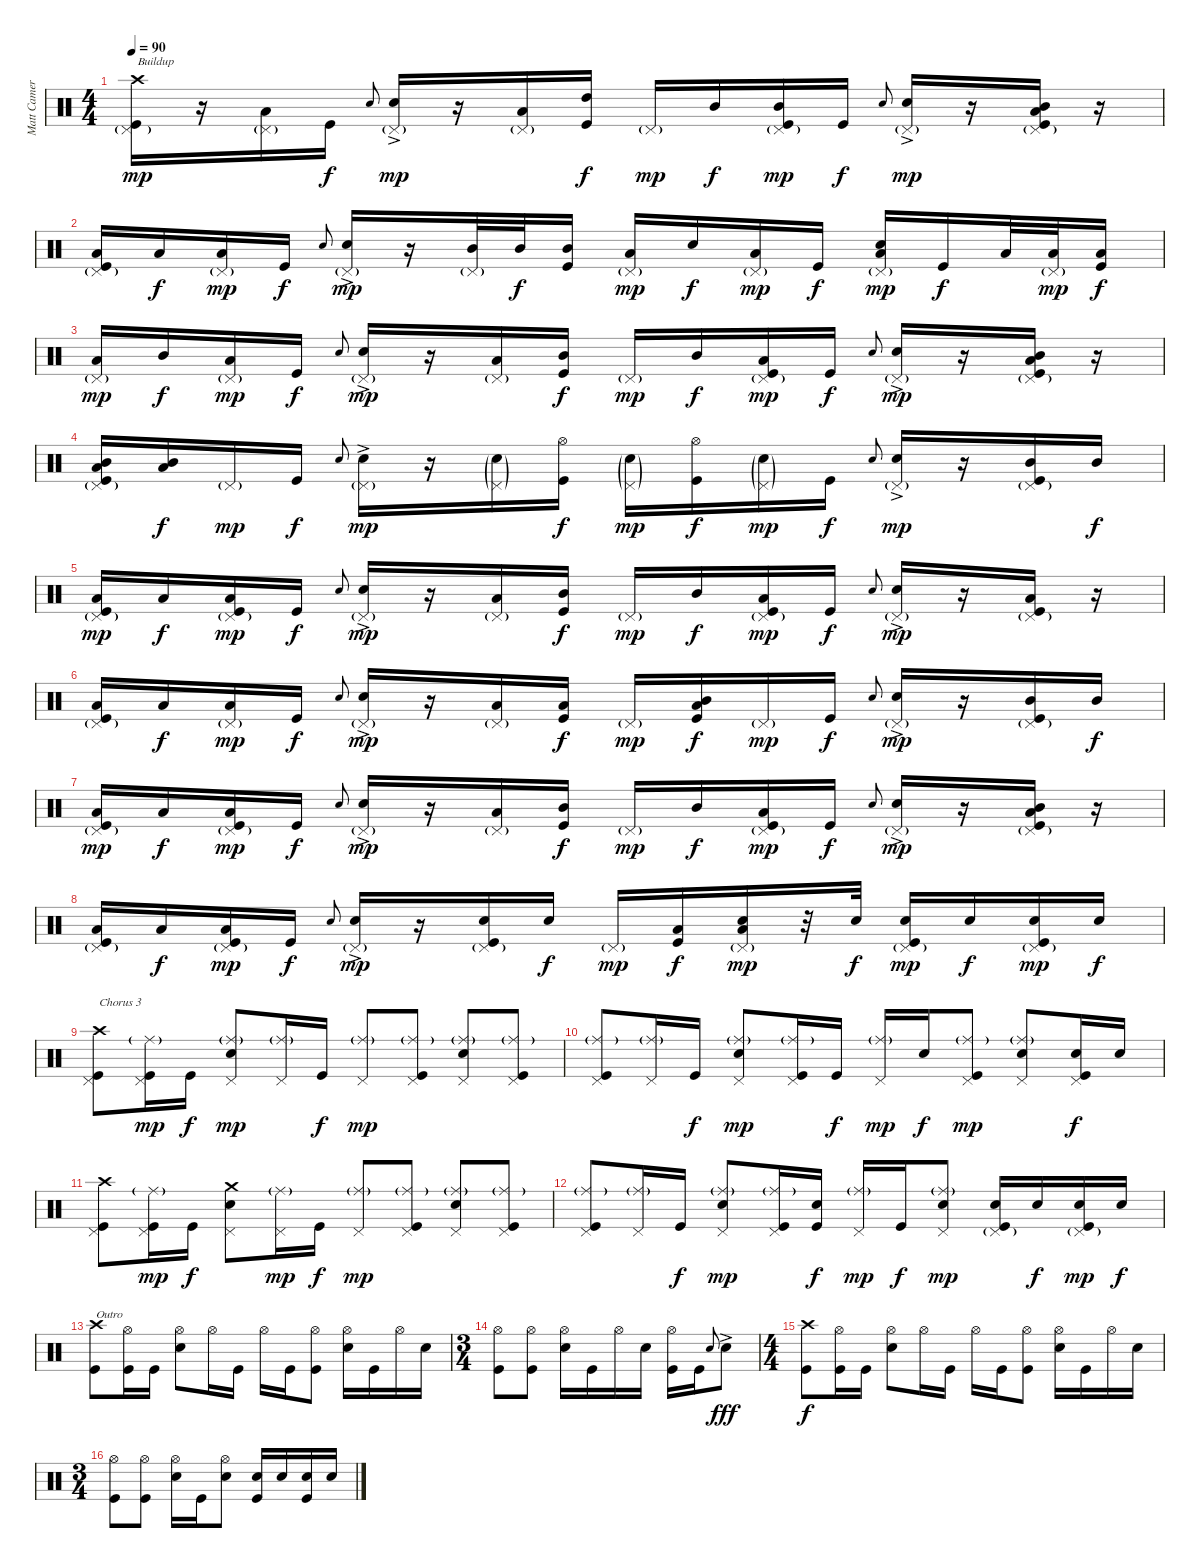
\track ("Matt Cameron" "Matt Camer") {instrument percussion}
\staff {score}
\articulation defaults
\ts (4 4)
\tempo 90
\clef neutral
\ks c
("Crash high (hit)" "Pedal Hi-Hat (hit)"{g} "Kick (hit)").16{txt "Buildup" dy mp} r.16 ("Low Floor Tom (hit)" "Pedal Hi-Hat (hit)"{g}).16 "Kick (hit)".16{dy f} "Electric Snare (hit)".8{gr onbeat} ("Electric Snare (hit)"{ac} "Pedal Hi-Hat (hit)"{g}).16{dy mp} r.16 ("Low Floor Tom (hit)" "Pedal Hi-Hat (hit)"{g}).16 ("High Tom (hit)" "Kick (hit)").16{dy f} "Pedal Hi-Hat (hit)"{g}.16{dy mp} "Mid Tom (hit)".16{dy f} ("Mid Tom (hit)" "Pedal Hi-Hat (hit)"{g} "Kick (hit)").16{dy mp} "Kick (hit)".16{dy f} "Electric Snare (hit)".8{gr onbeat} ("Electric Snare (hit)"{ac} "Pedal Hi-Hat (hit)"{g}).16{dy mp} r.16 ("Mid Tom (hit)" "Low Floor Tom (hit)" "Pedal Hi-Hat (hit)"{g} "Kick (hit)").16 r.16 |
("Low Floor Tom (hit)" "Pedal Hi-Hat (hit)"{g} "Kick (hit)").16 "Low Floor Tom (hit)".16{dy f} ("Low Floor Tom (hit)" "Pedal Hi-Hat (hit)"{g}).16{dy mp} "Kick (hit)".16{dy f} "Electric Snare (hit)".8{gr onbeat} ("Electric Snare (hit)"{ac} "Pedal Hi-Hat (hit)"{g}).16{dy mp} r.16 ("Mid Tom (hit)" "Pedal Hi-Hat (hit)"{g}).32 "Mid Tom (hit)".32{dy f} ("Mid Tom (hit)" "Kick (hit)").16 ("Low Floor Tom (hit)" "Pedal Hi-Hat (hit)"{g}).16{dy mp} "Electric Snare (hit)".16{dy f} ("Low Floor Tom (hit)" "Pedal Hi-Hat (hit)"{g}).16{dy mp} "Kick (hit)".16{dy f} ("Electric Snare (hit)" "Low Floor Tom (hit)" "Pedal Hi-Hat (hit)"{g}).16{dy mp} "Kick (hit)".16{dy f} "Low Floor Tom (hit)".32 ("Low Floor Tom (hit)" "Pedal Hi-Hat (hit)"{g}).32{dy mp} ("Low Floor Tom (hit)" "Kick (hit)").16{dy f} |
("Low Floor Tom (hit)" "Pedal Hi-Hat (hit)"{g}).16{dy mp} "Mid Tom (hit)".16{dy f} ("Low Floor Tom (hit)" "Pedal Hi-Hat (hit)"{g}).16{dy mp} "Kick (hit)".16{dy f} "Electric Snare (hit)".8{gr onbeat} ("Electric Snare (hit)"{ac} "Pedal Hi-Hat (hit)"{g}).16{dy mp} r.16 ("Low Floor Tom (hit)" "Pedal Hi-Hat (hit)"{g}).16 ("Mid Tom (hit)" "Kick (hit)").16{dy f} "Pedal Hi-Hat (hit)"{g}.16{dy mp} "Mid Tom (hit)".16{dy f} ("Low Floor Tom (hit)" "Pedal Hi-Hat (hit)"{g} "Kick (hit)").16{dy mp} "Kick (hit)".16{dy f} "Electric Snare (hit)".8{gr onbeat} ("Electric Snare (hit)"{ac} "Pedal Hi-Hat (hit)"{g}).16{dy mp} r.16 ("Mid Tom (hit)" "Low Floor Tom (hit)" "Pedal Hi-Hat (hit)"{g} "Kick (hit)").16 r.16 |
("Mid Tom (hit)" "Low Floor Tom (hit)" "Pedal Hi-Hat (hit)"{g} "Kick (hit)").16 ("Mid Tom (hit)" "Low Floor Tom (hit)").16{dy f} "Pedal Hi-Hat (hit)"{g}.16{dy mp} "Kick (hit)".16{dy f} "Electric Snare (hit)".8{gr onbeat} ("Electric Snare (hit)"{ac} "Pedal Hi-Hat (hit)"{g}).16{dy mp} r.16 ("Electric Snare (hit)"{g} "Pedal Hi-Hat (hit)"{g}).16 ("Hi-Hat (open)" "Kick (hit)").16{dy f} ("Electric Snare (hit)"{g} "Pedal Hi-Hat (hit)"{g}).16{dy mp} ("Hi-Hat (open)" "Kick (hit)").16{dy f} ("Electric Snare (hit)"{g} "Pedal Hi-Hat (hit)"{g}).16{dy mp} "Kick (hit)".16{dy f} "Electric Snare (hit)".8{gr onbeat} ("Electric Snare (hit)"{ac} "Pedal Hi-Hat (hit)"{g}).16{dy mp} r.16 ("Mid Tom (hit)" "Pedal Hi-Hat (hit)"{g} "Kick (hit)").16 "Mid Tom (hit)".16{dy f} |
("Low Floor Tom (hit)" "Pedal Hi-Hat (hit)"{g} "Kick (hit)").16{dy mp} "Low Floor Tom (hit)".16{dy f} ("Low Floor Tom (hit)" "Pedal Hi-Hat (hit)"{g} "Kick (hit)").16{dy mp} "Kick (hit)".16{dy f} "Electric Snare (hit)".8{gr onbeat} ("Electric Snare (hit)"{ac} "Pedal Hi-Hat (hit)"{g}).16{dy mp} r.16 ("Low Floor Tom (hit)" "Pedal Hi-Hat (hit)"{g}).16 ("Mid Tom (hit)" "Kick (hit)").16{dy f} "Pedal Hi-Hat (hit)"{g}.16{dy mp} "Mid Tom (hit)".16{dy f} ("Low Floor Tom (hit)" "Pedal Hi-Hat (hit)"{g} "Kick (hit)").16{dy mp} "Kick (hit)".16{dy f} "Electric Snare (hit)".8{gr onbeat} ("Electric Snare (hit)"{ac} "Pedal Hi-Hat (hit)"{g}).16{dy mp} r.16 ("Low Floor Tom (hit)" "Pedal Hi-Hat (hit)"{g} "Kick (hit)").16 r.16 |
("Low Floor Tom (hit)" "Pedal Hi-Hat (hit)"{g} "Kick (hit)").16 "Low Floor Tom (hit)".16{dy f} ("Low Floor Tom (hit)" "Pedal Hi-Hat (hit)"{g}).16{dy mp} "Kick (hit)".16{dy f} "Electric Snare (hit)".8{gr onbeat} ("Electric Snare (hit)"{ac} "Pedal Hi-Hat (hit)"{g}).16{dy mp} r.16 ("Low Floor Tom (hit)" "Pedal Hi-Hat (hit)"{g}).16 ("Low Floor Tom (hit)" "Kick (hit)").16{dy f} "Pedal Hi-Hat (hit)"{g}.16{dy mp} ("Mid Tom (hit)" "Low Floor Tom (hit)" "Kick (hit)").16{dy f} "Pedal Hi-Hat (hit)"{g}.16{dy mp} "Kick (hit)".16{dy f} "Electric Snare (hit)".8{gr onbeat} ("Electric Snare (hit)"{ac} "Pedal Hi-Hat (hit)"{g}).16{dy mp} r.16 ("Mid Tom (hit)" "Pedal Hi-Hat (hit)"{g} "Kick (hit)").16 "Mid Tom (hit)".16{dy f} |
("Low Floor Tom (hit)" "Pedal Hi-Hat (hit)"{g} "Kick (hit)").16{dy mp} "Low Floor Tom (hit)".16{dy f} ("Low Floor Tom (hit)" "Pedal Hi-Hat (hit)"{g} "Kick (hit)").16{dy mp} "Kick (hit)".16{dy f} "Electric Snare (hit)".8{gr onbeat} ("Electric Snare (hit)"{ac} "Pedal Hi-Hat (hit)"{g}).16{dy mp} r.16 ("Low Floor Tom (hit)" "Pedal Hi-Hat (hit)"{g}).16 ("Mid Tom (hit)" "Kick (hit)").16{dy f} "Pedal Hi-Hat (hit)"{g}.16{dy mp} "Mid Tom (hit)".16{dy f} ("Low Floor Tom (hit)" "Pedal Hi-Hat (hit)"{g} "Kick (hit)").16{dy mp} "Kick (hit)".16{dy f} "Electric Snare (hit)".8{gr onbeat} ("Electric Snare (hit)"{ac} "Pedal Hi-Hat (hit)"{g}).16{dy mp} r.16 ("Mid Tom (hit)" "Low Floor Tom (hit)" "Pedal Hi-Hat (hit)"{g} "Kick (hit)").16 r.16 |
("Low Floor Tom (hit)" "Pedal Hi-Hat (hit)"{g} "Kick (hit)").16 "Low Floor Tom (hit)".16{dy f} ("Low Floor Tom (hit)" "Pedal Hi-Hat (hit)"{g} "Kick (hit)").16{dy mp} "Kick (hit)".16{dy f} "Electric Snare (hit)".8{gr onbeat} ("Electric Snare (hit)"{ac} "Pedal Hi-Hat (hit)"{g}).16{dy mp} r.16 ("Electric Snare (hit)" "Pedal Hi-Hat (hit)"{g} "Kick (hit)").16 "Electric Snare (hit)".16{dy f} "Pedal Hi-Hat (hit)"{g}.16{dy mp} ("Low Floor Tom (hit)" "Kick (hit)").16{dy f} ("Electric Snare (hit)" "Low Floor Tom (hit)" "Pedal Hi-Hat (hit)"{g}).16{dy mp} r.32 "Electric Snare (hit)".32{dy f} ("Electric Snare (hit)" "Pedal Hi-Hat (hit)"{g} "Kick (hit)").16{dy mp} "Electric Snare (hit)".16{dy f} ("Electric Snare (hit)" "Pedal Hi-Hat (hit)"{g} "Kick (hit)").16{dy mp} "Electric Snare (hit)".16{dy f} |
("Crash high (hit)" "Pedal Hi-Hat (hit)" "Kick (hit)").8{txt "Chorus 3"} ("Ride (middle)"{g} "Pedal Hi-Hat (hit)" "Kick (hit)").16{dy mp} "Kick (hit)".16{dy f} ("Ride (middle)"{g} "Electric Snare (hit)" "Pedal Hi-Hat (hit)").8{dy mp} ("Ride (middle)"{g} "Pedal Hi-Hat (hit)").16 "Kick (hit)".16{dy f} ("Ride (middle)"{g} "Pedal Hi-Hat (hit)").8{dy mp} ("Ride (middle)"{g} "Pedal Hi-Hat (hit)" "Kick (hit)").8 ("Ride (middle)"{g} "Electric Snare (hit)" "Pedal Hi-Hat (hit)").8 ("Ride (middle)"{g} "Pedal Hi-Hat (hit)" "Kick (hit)").8 |
("Ride (middle)"{g} "Pedal Hi-Hat (hit)" "Kick (hit)").8 ("Ride (middle)"{g} "Pedal Hi-Hat (hit)").16 "Kick (hit)".16{dy f} ("Ride (middle)"{g} "Electric Snare (hit)" "Pedal Hi-Hat (hit)").8{dy mp} ("Ride (middle)"{g} "Pedal Hi-Hat (hit)" "Kick (hit)").16 "Kick (hit)".16{dy f} ("Ride (middle)"{g} "Pedal Hi-Hat (hit)").16{dy mp} "Electric Snare (hit)".16{dy f} ("Ride (middle)"{g} "Pedal Hi-Hat (hit)" "Kick (hit)").8{dy mp} ("Ride (middle)"{g} "Electric Snare (hit)" "Pedal Hi-Hat (hit)").8 ("Electric Snare (hit)" "Pedal Hi-Hat (hit)" "Kick (hit)").16{dy f} "Electric Snare (hit)".16 |
("Crash high (hit)" "Pedal Hi-Hat (hit)" "Kick (hit)").8 ("Ride (middle)"{g} "Pedal Hi-Hat (hit)" "Kick (hit)").16{dy mp} "Kick (hit)".16{dy f} ("Crash medium (hit)" "Electric Snare (hit)" "Pedal Hi-Hat (hit)").8 ("Ride (middle)"{g} "Pedal Hi-Hat (hit)").16{dy mp} "Kick (hit)".16{dy f} ("Ride (middle)"{g} "Pedal Hi-Hat (hit)").8{dy mp} ("Ride (middle)"{g} "Pedal Hi-Hat (hit)" "Kick (hit)").8 ("Ride (middle)"{g} "Electric Snare (hit)" "Pedal Hi-Hat (hit)").8 ("Ride (middle)"{g} "Pedal Hi-Hat (hit)" "Kick (hit)").8 |
("Ride (middle)"{g} "Pedal Hi-Hat (hit)" "Kick (hit)").8 ("Ride (middle)"{g} "Pedal Hi-Hat (hit)").16 "Kick (hit)".16{dy f} ("Ride (middle)"{g} "Electric Snare (hit)" "Pedal Hi-Hat (hit)").8{dy mp} ("Ride (middle)"{g} "Pedal Hi-Hat (hit)" "Kick (hit)").16 ("Electric Snare (hit)" "Kick (hit)").16{dy f} ("Ride (middle)"{g} "Pedal Hi-Hat (hit)").16{dy mp} "Kick (hit)".16{dy f} ("Ride (middle)"{g} "Electric Snare (hit)" "Pedal Hi-Hat (hit)").8{dy mp} ("Electric Snare (hit)" "Pedal Hi-Hat (hit)"{g} "Kick (hit)").16 "Electric Snare (hit)".16{dy f} ("Electric Snare (hit)" "Pedal Hi-Hat (hit)"{g} "Kick (hit)").16{dy mp} "Electric Snare (hit)".16{dy f} |
("Crash high (hit)" "Kick (hit)").8{txt "Outro"} ("Hi-Hat (open)" "Kick (hit)").16 "Kick (hit)".16 ("Hi-Hat (open)" "Electric Snare (hit)").8 "Hi-Hat (open)".16 "Kick (hit)".16 "Hi-Hat (open)".16 "Kick (hit)".16 ("Hi-Hat (open)" "Kick (hit)").8 ("Hi-Hat (open)" "Electric Snare (hit)").16 "Kick (hit)".16 "Hi-Hat (open)".16 "Electric Snare (hit)".16 |
\ts (3 4)
("Hi-Hat (open)" "Kick (hit)").8 ("Hi-Hat (open)" "Kick (hit)").8 ("Hi-Hat (open)" "Electric Snare (hit)").16 "Kick (hit)".16 "Hi-Hat (open)".16 "Electric Snare (hit)".16 ("Hi-Hat (open)" "Kick (hit)").16 "Kick (hit)".16 "Electric Snare (hit)".8{gr onbeat} "Electric Snare (hit)"{ac}.8{dy fff} |
\ts (4 4)
("Crash high (hit)" "Kick (hit)").8{dy f} ("Hi-Hat (open)" "Kick (hit)").16 "Kick (hit)".16 ("Hi-Hat (open)" "Electric Snare (hit)").8 "Hi-Hat (open)".16 "Kick (hit)".16 "Hi-Hat (open)".16 "Kick (hit)".16 ("Hi-Hat (open)" "Kick (hit)").8 ("Hi-Hat (open)" "Electric Snare (hit)").16 "Kick (hit)".16 "Hi-Hat (open)".16 "Electric Snare (hit)".16 |
\ts (3 4)
("Hi-Hat (open)" "Kick (hit)").8 ("Hi-Hat (open)" "Kick (hit)").8 ("Hi-Hat (open)" "Electric Snare (hit)").16 "Kick (hit)".16 ("Hi-Hat (open)" "Electric Snare (hit)").8 ("Electric Snare (hit)" "Kick (hit)").16 "Electric Snare (hit)".16 ("Electric Snare (hit)" "Kick (hit)").16 "Electric Snare (hit)".16
